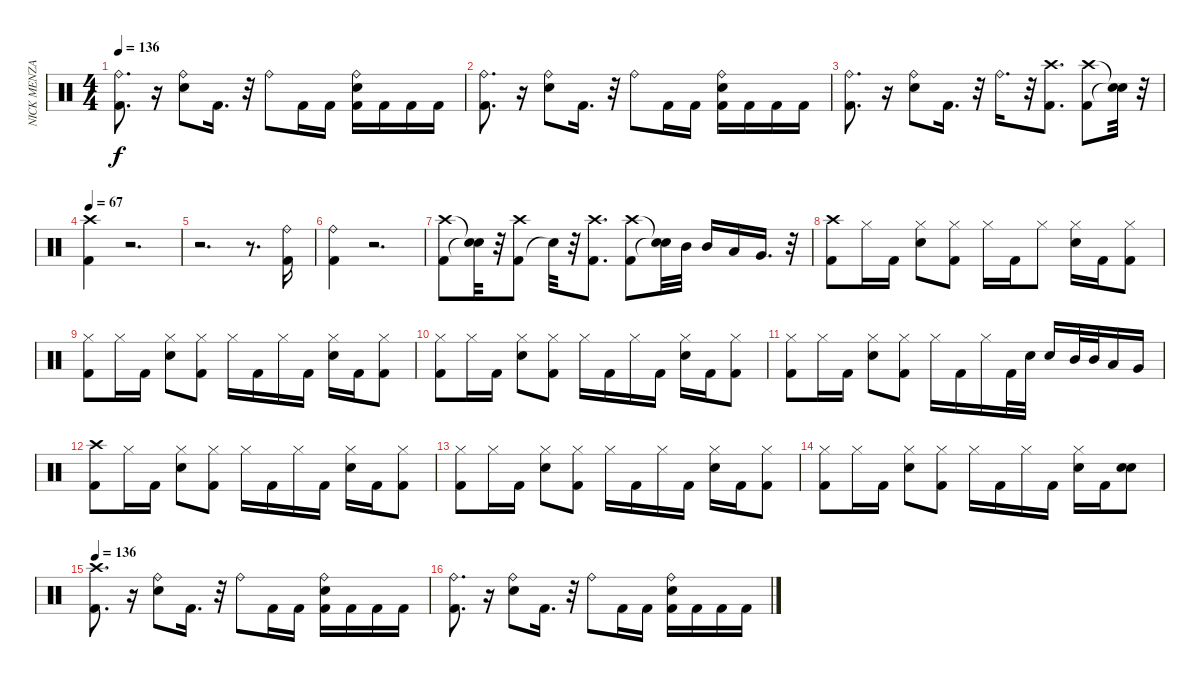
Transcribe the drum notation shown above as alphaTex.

\track ("NICK MENZA" "NICK MENZA") {instrument percussion}
\staff {score}
\articulation defaults
\ts (4 4)
\tempo 136
\clef neutral
\ks c
("Ride (bell)" "Kick (hit) 2").8{d dy f} r.16 ("Ride (bell)" "Snare (hit) 2").8 "Kick (hit) 2".16{d} r.32 "Ride (bell)".8 "Kick (hit) 2".16 "Kick (hit) 2".16 ("Snare (hit) 2" "Ride (bell)" "Kick (hit) 2").16 "Kick (hit) 2".16 "Kick (hit) 2".16 "Kick (hit) 2".16 |
("Ride (bell)" "Kick (hit) 2").8{d} r.16 ("Snare (hit) 2" "Ride (bell)").8 "Kick (hit) 2".16{d} r.32 "Ride (bell)".8 "Kick (hit) 2".16 "Kick (hit) 2".16 ("Ride (bell)" "Snare (hit) 2" "Kick (hit) 2").16 "Kick (hit) 2".16 "Kick (hit) 2".16 "Kick (hit) 2".16 |
("Kick (hit) 2" "Ride (bell)").8{d} r.16 ("Snare (hit) 2" "Ride (bell)").8 "Kick (hit) 2".16{d} r.32 "Ride (bell)".16{d} r.32 ("Kick (hit) 2" "Crash high (hit)").8{d} ("Kick (hit) 2" "Crash high (hit)").8 ("Snare (hit)"{t} "Snare (hit)"{t}).32 r.32 |
\tempo 67
("Crash high (hit)" "Kick (hit) 2").4 r.2{d} |
r.2{d} r.8{d} ("Kick (hit) 2" "Ride (bell)").16 |
("Ride (bell)" "Kick (hit) 2").4 r.2{d} |
("Crash high (hit)" "Kick (hit) 2").8 ("Snare (hit)"{t} "Snare (hit)"{t}).32 r.32 ("Kick (hit) 2" "Crash high (hit)").8 "Snare (hit)"{t}.32 r.32 ("Kick (hit) 2" "Crash high (hit)").8{d} ("Crash high (hit)" "Kick (hit) 2").8 ("Snare (hit)"{t} "Snare (hit)"{t}).32 "Mid Tom (hit)".32 "Mid Tom (hit)".16 "Low Tom (hit)".16 "Very Low Tom (hit)".16{d} r.32 |
("Kick (hit) 2" "Crash high (hit)").8 "Hi-Hat (closed)".16 "Kick (hit) 2".16 ("Hi-Hat (closed)" "Snare (hit) 2").8 ("Hi-Hat (closed)" "Kick (hit) 2").8 "Hi-Hat (closed)".16 "Kick (hit) 2".16 "Hi-Hat (closed)".8 ("Hi-Hat (closed)" "Snare (hit) 2").16 "Kick (hit) 2".16 ("Kick (hit) 2" "Hi-Hat (closed)").8 |
("Hi-Hat (closed)" "Kick (hit) 2").8 "Hi-Hat (closed)".16 "Kick (hit) 2".16 ("Snare (hit) 2" "Hi-Hat (closed)").8 ("Kick (hit) 2" "Hi-Hat (closed)").8 "Hi-Hat (closed)".16 "Kick (hit) 2".16 "Hi-Hat (closed)".16 "Kick (hit) 2".16 ("Hi-Hat (closed)" "Snare (hit) 2").16 "Kick (hit) 2".16 ("Kick (hit) 2" "Hi-Hat (closed)").8 |
("Hi-Hat (closed)" "Kick (hit) 2").8 "Hi-Hat (closed)".16 "Kick (hit) 2".16 ("Snare (hit) 2" "Hi-Hat (closed)").8 ("Kick (hit) 2" "Hi-Hat (closed)").8 "Hi-Hat (closed)".16 "Kick (hit) 2".16 "Hi-Hat (closed)".16 "Kick (hit) 2".16 ("Hi-Hat (closed)" "Snare (hit) 2").16 "Kick (hit) 2".16 ("Kick (hit) 2" "Hi-Hat (closed)").8 |
("Hi-Hat (closed)" "Kick (hit) 2").8 "Hi-Hat (closed)".16 "Kick (hit) 2".16 ("Hi-Hat (closed)" "Snare (hit) 2").8 ("Kick (hit) 2" "Hi-Hat (closed)").8 "Hi-Hat (closed)".16 "Kick (hit) 2".16 "Hi-Hat (closed)".16 "Kick (hit) 2".32 "Snare (hit) 2".32 "Snare (hit) 2".16 "Mid Tom (hit)".32 "Mid Tom (hit)".32 "Low Tom (hit)".16 "Very Low Tom (hit)".16 |
("Crash high (hit)" "Kick (hit) 2").8 "Hi-Hat (closed)".16 "Kick (hit) 2".16 ("Snare (hit) 2" "Hi-Hat (closed)").8 ("Hi-Hat (closed)" "Kick (hit) 2").8 "Hi-Hat (closed)".16 "Kick (hit) 2".16 "Hi-Hat (closed)".16 "Kick (hit) 2".16 ("Hi-Hat (closed)" "Snare (hit) 2").16 "Kick (hit) 2".16 ("Kick (hit) 2" "Hi-Hat (closed)").8 |
("Hi-Hat (closed)" "Kick (hit) 2").8 "Hi-Hat (closed)".16 "Kick (hit) 2".16 ("Hi-Hat (closed)" "Snare (hit) 2").8 ("Hi-Hat (closed)" "Kick (hit) 2").8 "Hi-Hat (closed)".16 "Kick (hit) 2".16 "Hi-Hat (closed)".16 "Kick (hit) 2".16 ("Snare (hit) 2" "Hi-Hat (closed)").16 "Kick (hit) 2".16 ("Kick (hit) 2" "Hi-Hat (closed)").8 |
("Kick (hit) 2" "Hi-Hat (closed)").8 "Hi-Hat (closed)".16 "Kick (hit) 2".16 ("Hi-Hat (closed)" "Snare (hit) 2").8 ("Hi-Hat (closed)" "Kick (hit) 2").8 "Hi-Hat (closed)".16 "Kick (hit) 2".16 "Hi-Hat (closed)".16 "Kick (hit) 2".16 ("Snare (hit) 2" "Hi-Hat (closed)").16 "Kick (hit) 2".16 ("Snare (hit) 2" "Snare (hit) 2").8 |
\tempo 136
("Crash high (hit)" "Kick (hit) 2").8{d} r.16 ("Ride (bell)" "Snare (hit) 2").8 "Kick (hit) 2".16{d} r.32 "Ride (bell)".8 "Kick (hit) 2".16 "Kick (hit) 2".16 ("Ride (bell)" "Snare (hit) 2" "Kick (hit) 2").16 "Kick (hit) 2".16 "Kick (hit) 2".16 "Kick (hit) 2".16 |
("Kick (hit) 2" "Ride (bell)").8{d} r.16 ("Ride (bell)" "Snare (hit) 2").8 "Kick (hit) 2".16{d} r.32 "Ride (bell)".8 "Kick (hit) 2".16 "Kick (hit) 2".16 ("Snare (hit) 2" "Ride (bell)" "Kick (hit) 2").16 "Kick (hit) 2".16 "Kick (hit) 2".16 "Kick (hit) 2".16
